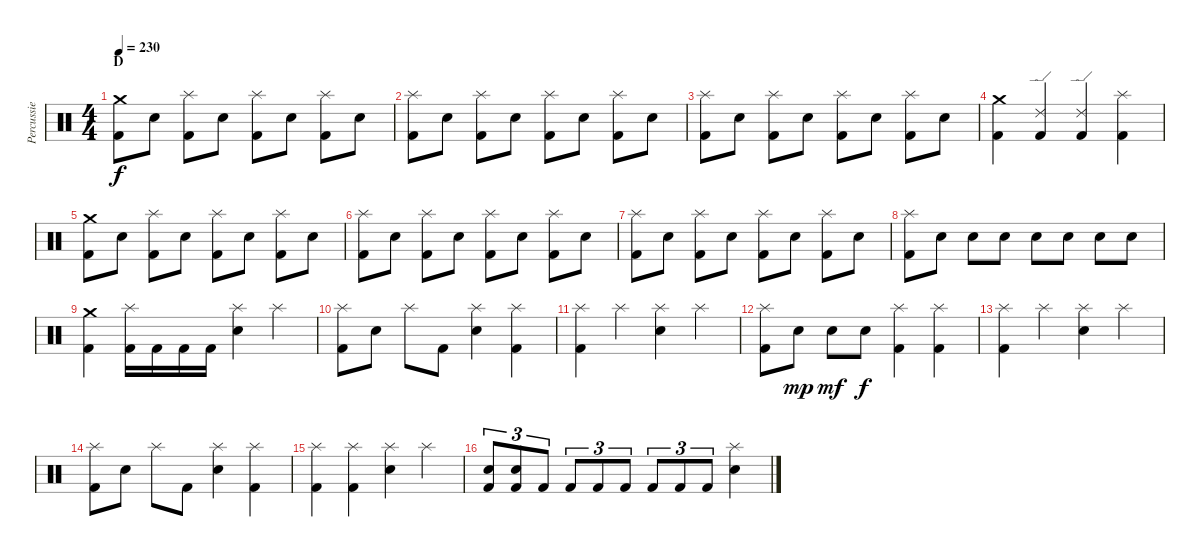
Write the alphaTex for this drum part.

\track ("Percussie" "Percussie") {instrument percussion}
\staff {score}
\articulation defaults
\ts (4 4)
\section ("" "D")
\tempo 230
\clef neutral
\ks c
("Crash medium (hit)" "Kick (hit) 2").8{dy f} "Electric Snare (hit)".8 ("Splash (hit)" "Kick (hit) 2").8 "Electric Snare (hit)".8 ("Splash (hit)" "Kick (hit) 2").8 "Electric Snare (hit)".8 ("Splash (hit)" "Kick (hit) 2").8 "Electric Snare (hit)".8 |
("Splash (hit)" "Kick (hit) 2").8 "Electric Snare (hit)".8 ("Splash (hit)" "Kick (hit) 2").8 "Electric Snare (hit)".8 ("Splash (hit)" "Kick (hit) 2").8 "Electric Snare (hit)".8 ("Splash (hit)" "Kick (hit) 2").8 "Electric Snare (hit)".8 |
("Splash (hit)" "Kick (hit) 2").8 "Electric Snare (hit)".8 ("Splash (hit)" "Kick (hit) 2").8 "Electric Snare (hit)".8 ("Splash (hit)" "Kick (hit) 2").8 "Electric Snare (hit)".8 ("Splash (hit)" "Kick (hit) 2").8 "Electric Snare (hit)".8 |
("Crash medium (hit)" "Kick (hit) 2").4 ("Ride (edge) 2" "Kick (hit) 2").4 ("Ride (edge) 2" "Kick (hit) 2").4 ("Splash (hit)" "Kick (hit) 2").4 |
("Crash medium (hit)" "Kick (hit) 2").8 "Electric Snare (hit)".8 ("Splash (hit)" "Kick (hit) 2").8 "Electric Snare (hit)".8 ("Splash (hit)" "Kick (hit) 2").8 "Electric Snare (hit)".8 ("Splash (hit)" "Kick (hit) 2").8 "Electric Snare (hit)".8 |
("Splash (hit)" "Kick (hit) 2").8 "Electric Snare (hit)".8 ("Splash (hit)" "Kick (hit) 2").8 "Electric Snare (hit)".8 ("Splash (hit)" "Kick (hit) 2").8 "Electric Snare (hit)".8 ("Splash (hit)" "Kick (hit) 2").8 "Electric Snare (hit)".8 |
("Splash (hit)" "Kick (hit) 2").8 "Electric Snare (hit)".8 ("Splash (hit)" "Kick (hit) 2").8 "Electric Snare (hit)".8 ("Splash (hit)" "Kick (hit) 2").8 "Electric Snare (hit)".8 ("Splash (hit)" "Kick (hit) 2").8 "Electric Snare (hit)".8 |
("Splash (hit)" "Kick (hit) 2").8 "Electric Snare (hit)".8 "Electric Snare (hit)".8 "Electric Snare (hit)".8 "Electric Snare (hit)".8 "Electric Snare (hit)".8 "Electric Snare (hit)".8 "Electric Snare (hit)".8 |
("Crash medium (hit)" "Kick (hit) 2").4 ("Splash (hit)" "Kick (hit) 2").16 "Kick (hit) 2".16 "Kick (hit) 2".16 "Kick (hit) 2".16 ("Splash (hit)" "Electric Snare (hit)").4 "Splash (hit)".4 |
("Splash (hit)" "Kick (hit) 2").8 "Electric Snare (hit)".8 "Splash (hit)".8 "Kick (hit) 2".8 ("Splash (hit)" "Electric Snare (hit)").4 ("Splash (hit)" "Kick (hit) 2").4 |
("Splash (hit)" "Kick (hit) 2").4 "Splash (hit)".4 ("Splash (hit)" "Electric Snare (hit)").4 "Splash (hit)".4 |
("Splash (hit)" "Kick (hit) 2").8 "Electric Snare (hit)".8{dy mp} "Electric Snare (hit)".8{dy mf} "Electric Snare (hit)".8{dy f} ("Splash (hit)" "Kick (hit) 2").4 ("Splash (hit)" "Kick (hit) 2").4 |
("Splash (hit)" "Kick (hit) 2").4 "Splash (hit)".4 ("Splash (hit)" "Electric Snare (hit)").4 "Splash (hit)".4 |
("Splash (hit)" "Kick (hit) 2").8 "Electric Snare (hit)".8 "Splash (hit)".8 "Kick (hit) 2".8 ("Splash (hit)" "Electric Snare (hit)").4 ("Splash (hit)" "Kick (hit) 2").4 |
("Splash (hit)" "Kick (hit) 2").4 ("Splash (hit)" "Kick (hit) 2").4 ("Splash (hit)" "Electric Snare (hit)").4 "Splash (hit)".4 |
("Electric Snare (hit)" "Kick (hit) 2").8{tu (3 2)} ("Electric Snare (hit)" "Kick (hit) 2").8{tu (3 2)} "Kick (hit) 2".8{tu (3 2)} "Kick (hit) 2".8{tu (3 2)} "Kick (hit) 2".8{tu (3 2)} "Kick (hit) 2".8{tu (3 2)} "Kick (hit) 2".8{tu (3 2)} "Kick (hit) 2".8{tu (3 2)} "Kick (hit) 2".8{tu (3 2)} ("Splash (hit)" "Electric Snare (hit)").4
